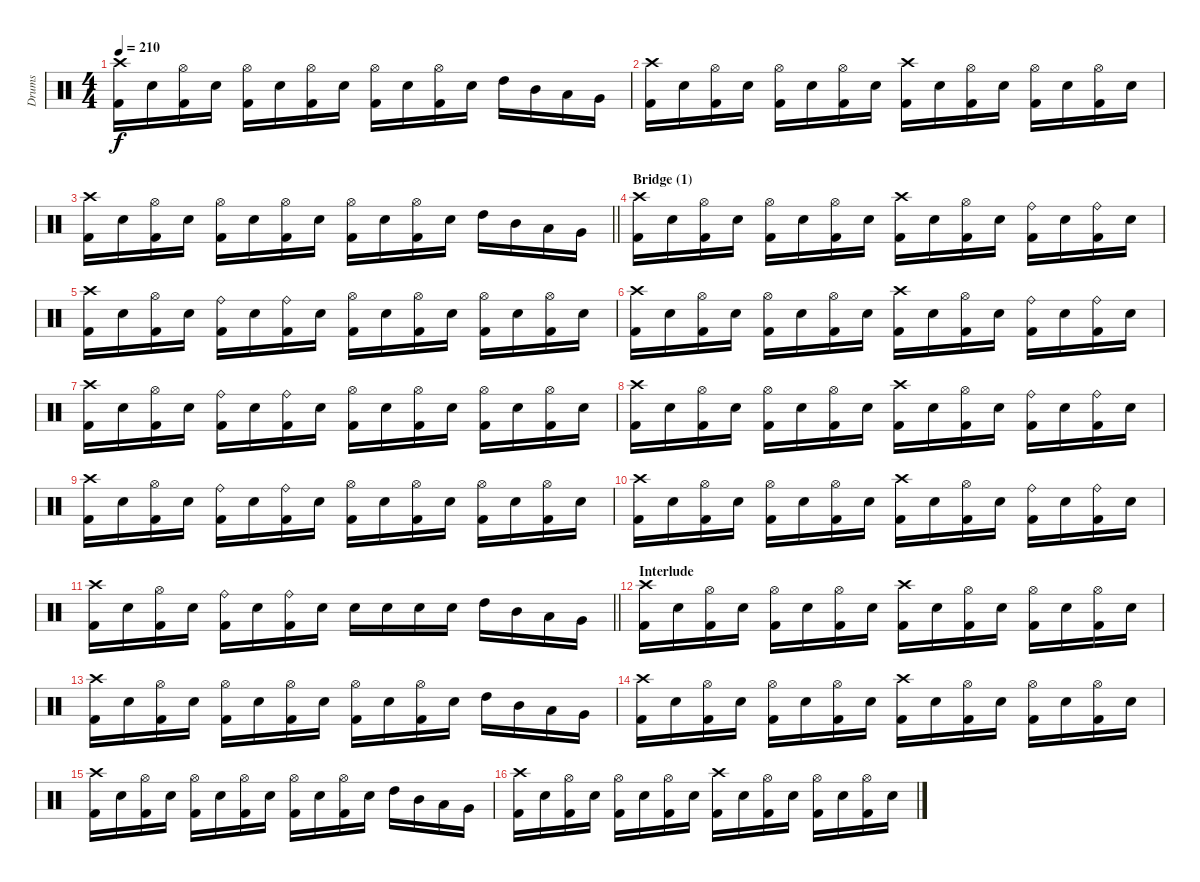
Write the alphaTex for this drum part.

\track ("Drums" "Drums") {instrument percussion}
\staff {score}
\articulation defaults
\ts (4 4)
\tempo 210
\clef neutral
\ks c
("Crash high (hit)" "Kick (hit) 2").16{dy f} "Electric Snare (hit)".16 ("Hi-Hat (open)" "Kick (hit) 2").16 "Electric Snare (hit)".16 ("Hi-Hat (open)" "Kick (hit) 2").16 "Electric Snare (hit)".16 ("Hi-Hat (open)" "Kick (hit) 2").16 "Electric Snare (hit)".16 ("Hi-Hat (open)" "Kick (hit) 2").16 "Electric Snare (hit)".16 ("Hi-Hat (open)" "Kick (hit) 2").16 "Electric Snare (hit)".16 "High Tom (hit)".16 "Mid Tom (hit)".16 "Low Tom (hit)".16 "Very Low Tom (hit)".16 |
("Crash high (hit)" "Kick (hit) 2").16 "Electric Snare (hit)".16 ("Hi-Hat (open)" "Kick (hit) 2").16 "Electric Snare (hit)".16 ("Hi-Hat (open)" "Kick (hit) 2").16 "Electric Snare (hit)".16 ("Hi-Hat (open)" "Kick (hit) 2").16 "Electric Snare (hit)".16 ("Crash high (hit)" "Kick (hit) 2").16 "Electric Snare (hit)".16 ("Hi-Hat (open)" "Kick (hit) 2").16 "Electric Snare (hit)".16 ("Hi-Hat (open)" "Kick (hit) 2").16 "Electric Snare (hit)".16 ("Hi-Hat (open)" "Kick (hit) 2").16 "Electric Snare (hit)".16 |
\barLineRight lightlight
("Crash high (hit)" "Kick (hit) 2").16 "Electric Snare (hit)".16 ("Hi-Hat (open)" "Kick (hit) 2").16 "Electric Snare (hit)".16 ("Hi-Hat (open)" "Kick (hit) 2").16 "Electric Snare (hit)".16 ("Hi-Hat (open)" "Kick (hit) 2").16 "Electric Snare (hit)".16 ("Hi-Hat (open)" "Kick (hit) 2").16 "Electric Snare (hit)".16 ("Hi-Hat (open)" "Kick (hit) 2").16 "Electric Snare (hit)".16 "High Tom (hit)".16 "Mid Tom (hit)".16 "Low Tom (hit)".16 "Very Low Tom (hit)".16 |
\section ("" "Bridge (1)")
("Crash high (hit)" "Kick (hit) 2").16 "Electric Snare (hit)".16 ("Hi-Hat (open)" "Kick (hit) 2").16 "Electric Snare (hit)".16 ("Hi-Hat (open)" "Kick (hit) 2").16 "Electric Snare (hit)".16 ("Hi-Hat (open)" "Kick (hit) 2").16 "Electric Snare (hit)".16 ("Crash high (hit)" "Kick (hit) 2").16 "Electric Snare (hit)".16 ("Hi-Hat (open)" "Kick (hit) 2").16 "Electric Snare (hit)".16 ("Ride (bell)" "Kick (hit) 2").16 "Electric Snare (hit)".16 ("Ride (bell)" "Kick (hit) 2").16 "Electric Snare (hit)".16 |
("Crash high (hit)" "Kick (hit) 2").16 "Electric Snare (hit)".16 ("Hi-Hat (open)" "Kick (hit) 2").16 "Electric Snare (hit)".16 ("Ride (bell)" "Kick (hit) 2").16 "Electric Snare (hit)".16 ("Ride (bell)" "Kick (hit) 2").16 "Electric Snare (hit)".16 ("Hi-Hat (open)" "Kick (hit) 2").16 "Electric Snare (hit)".16 ("Hi-Hat (open)" "Kick (hit) 2").16 "Electric Snare (hit)".16 ("Hi-Hat (open)" "Kick (hit) 2").16 "Electric Snare (hit)".16 ("Hi-Hat (open)" "Kick (hit) 2").16 "Electric Snare (hit)".16 |
("Crash high (hit)" "Kick (hit) 2").16 "Electric Snare (hit)".16 ("Hi-Hat (open)" "Kick (hit) 2").16 "Electric Snare (hit)".16 ("Hi-Hat (open)" "Kick (hit) 2").16 "Electric Snare (hit)".16 ("Hi-Hat (open)" "Kick (hit) 2").16 "Electric Snare (hit)".16 ("Crash high (hit)" "Kick (hit) 2").16 "Electric Snare (hit)".16 ("Hi-Hat (open)" "Kick (hit) 2").16 "Electric Snare (hit)".16 ("Ride (bell)" "Kick (hit) 2").16 "Electric Snare (hit)".16 ("Ride (bell)" "Kick (hit) 2").16 "Electric Snare (hit)".16 |
("Crash high (hit)" "Kick (hit) 2").16 "Electric Snare (hit)".16 ("Hi-Hat (open)" "Kick (hit) 2").16 "Electric Snare (hit)".16 ("Ride (bell)" "Kick (hit) 2").16 "Electric Snare (hit)".16 ("Ride (bell)" "Kick (hit) 2").16 "Electric Snare (hit)".16 ("Hi-Hat (open)" "Kick (hit) 2").16 "Electric Snare (hit)".16 ("Hi-Hat (open)" "Kick (hit) 2").16 "Electric Snare (hit)".16 ("Hi-Hat (open)" "Kick (hit) 2").16 "Electric Snare (hit)".16 ("Hi-Hat (open)" "Kick (hit) 2").16 "Electric Snare (hit)".16 |
("Crash high (hit)" "Kick (hit) 2").16 "Electric Snare (hit)".16 ("Hi-Hat (open)" "Kick (hit) 2").16 "Electric Snare (hit)".16 ("Hi-Hat (open)" "Kick (hit) 2").16 "Electric Snare (hit)".16 ("Hi-Hat (open)" "Kick (hit) 2").16 "Electric Snare (hit)".16 ("Crash high (hit)" "Kick (hit) 2").16 "Electric Snare (hit)".16 ("Hi-Hat (open)" "Kick (hit) 2").16 "Electric Snare (hit)".16 ("Ride (bell)" "Kick (hit) 2").16 "Electric Snare (hit)".16 ("Ride (bell)" "Kick (hit) 2").16 "Electric Snare (hit)".16 |
("Crash high (hit)" "Kick (hit) 2").16 "Electric Snare (hit)".16 ("Hi-Hat (open)" "Kick (hit) 2").16 "Electric Snare (hit)".16 ("Ride (bell)" "Kick (hit) 2").16 "Electric Snare (hit)".16 ("Ride (bell)" "Kick (hit) 2").16 "Electric Snare (hit)".16 ("Hi-Hat (open)" "Kick (hit) 2").16 "Electric Snare (hit)".16 ("Hi-Hat (open)" "Kick (hit) 2").16 "Electric Snare (hit)".16 ("Hi-Hat (open)" "Kick (hit) 2").16 "Electric Snare (hit)".16 ("Hi-Hat (open)" "Kick (hit) 2").16 "Electric Snare (hit)".16 |
("Crash high (hit)" "Kick (hit) 2").16 "Electric Snare (hit)".16 ("Hi-Hat (open)" "Kick (hit) 2").16 "Electric Snare (hit)".16 ("Hi-Hat (open)" "Kick (hit) 2").16 "Electric Snare (hit)".16 ("Hi-Hat (open)" "Kick (hit) 2").16 "Electric Snare (hit)".16 ("Crash high (hit)" "Kick (hit) 2").16 "Electric Snare (hit)".16 ("Hi-Hat (open)" "Kick (hit) 2").16 "Electric Snare (hit)".16 ("Ride (bell)" "Kick (hit) 2").16 "Electric Snare (hit)".16 ("Ride (bell)" "Kick (hit) 2").16 "Electric Snare (hit)".16 |
\barLineRight lightlight
("Crash high (hit)" "Kick (hit) 2").16 "Electric Snare (hit)".16 ("Hi-Hat (open)" "Kick (hit) 2").16 "Electric Snare (hit)".16 ("Ride (bell)" "Kick (hit) 2").16 "Electric Snare (hit)".16 ("Ride (bell)" "Kick (hit) 2").16 "Electric Snare (hit)".16 "Electric Snare (hit)".16 "Electric Snare (hit)".16 "Electric Snare (hit)".16 "Electric Snare (hit)".16 "High Tom (hit)".16 "Mid Tom (hit)".16 "Low Tom (hit)".16 "Very Low Tom (hit)".16 |
\section ("" "Interlude")
("Crash high (hit)" "Kick (hit) 2").16 "Electric Snare (hit)".16 ("Hi-Hat (open)" "Kick (hit) 2").16 "Electric Snare (hit)".16 ("Hi-Hat (open)" "Kick (hit) 2").16 "Electric Snare (hit)".16 ("Hi-Hat (open)" "Kick (hit) 2").16 "Electric Snare (hit)".16 ("Crash high (hit)" "Kick (hit) 2").16 "Electric Snare (hit)".16 ("Hi-Hat (open)" "Kick (hit) 2").16 "Electric Snare (hit)".16 ("Hi-Hat (open)" "Kick (hit) 2").16 "Electric Snare (hit)".16 ("Hi-Hat (open)" "Kick (hit) 2").16 "Electric Snare (hit)".16 |
("Crash high (hit)" "Kick (hit) 2").16 "Electric Snare (hit)".16 ("Hi-Hat (open)" "Kick (hit) 2").16 "Electric Snare (hit)".16 ("Hi-Hat (open)" "Kick (hit) 2").16 "Electric Snare (hit)".16 ("Hi-Hat (open)" "Kick (hit) 2").16 "Electric Snare (hit)".16 ("Hi-Hat (open)" "Kick (hit) 2").16 "Electric Snare (hit)".16 ("Hi-Hat (open)" "Kick (hit) 2").16 "Electric Snare (hit)".16 "High Tom (hit)".16 "Mid Tom (hit)".16 "Low Tom (hit)".16 "Very Low Tom (hit)".16 |
("Crash high (hit)" "Kick (hit) 2").16 "Electric Snare (hit)".16 ("Hi-Hat (open)" "Kick (hit) 2").16 "Electric Snare (hit)".16 ("Hi-Hat (open)" "Kick (hit) 2").16 "Electric Snare (hit)".16 ("Hi-Hat (open)" "Kick (hit) 2").16 "Electric Snare (hit)".16 ("Crash high (hit)" "Kick (hit) 2").16 "Electric Snare (hit)".16 ("Hi-Hat (open)" "Kick (hit) 2").16 "Electric Snare (hit)".16 ("Hi-Hat (open)" "Kick (hit) 2").16 "Electric Snare (hit)".16 ("Hi-Hat (open)" "Kick (hit) 2").16 "Electric Snare (hit)".16 |
("Crash high (hit)" "Kick (hit) 2").16 "Electric Snare (hit)".16 ("Hi-Hat (open)" "Kick (hit) 2").16 "Electric Snare (hit)".16 ("Hi-Hat (open)" "Kick (hit) 2").16 "Electric Snare (hit)".16 ("Hi-Hat (open)" "Kick (hit) 2").16 "Electric Snare (hit)".16 ("Hi-Hat (open)" "Kick (hit) 2").16 "Electric Snare (hit)".16 ("Hi-Hat (open)" "Kick (hit) 2").16 "Electric Snare (hit)".16 "High Tom (hit)".16 "Mid Tom (hit)".16 "Low Tom (hit)".16 "Very Low Tom (hit)".16 |
("Crash high (hit)" "Kick (hit) 2").16 "Electric Snare (hit)".16 ("Hi-Hat (open)" "Kick (hit) 2").16 "Electric Snare (hit)".16 ("Hi-Hat (open)" "Kick (hit) 2").16 "Electric Snare (hit)".16 ("Hi-Hat (open)" "Kick (hit) 2").16 "Electric Snare (hit)".16 ("Crash high (hit)" "Kick (hit) 2").16 "Electric Snare (hit)".16 ("Hi-Hat (open)" "Kick (hit) 2").16 "Electric Snare (hit)".16 ("Hi-Hat (open)" "Kick (hit) 2").16 "Electric Snare (hit)".16 ("Hi-Hat (open)" "Kick (hit) 2").16 "Electric Snare (hit)".16
